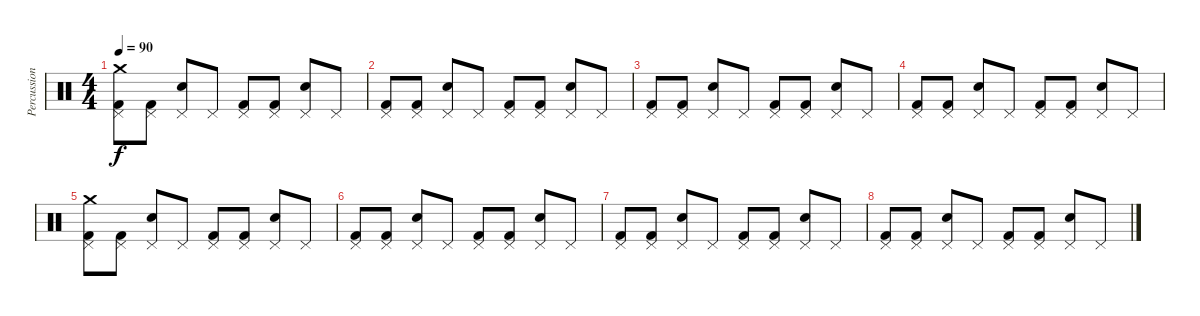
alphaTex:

\track ("Percussion" "Percussion") {instrument percussion}
\staff {score}
\articulation defaults
\ts (4 4)
\tempo 90
\clef neutral
\ks c
("Pedal Hi-Hat (hit)" "Kick (hit) 2" "Crash medium (hit)").8{dy f} ("Pedal Hi-Hat (hit)" "Kick (hit) 2").8 ("Pedal Hi-Hat (hit)" "Electric Snare (hit)").8 "Pedal Hi-Hat (hit)".8 ("Pedal Hi-Hat (hit)" "Kick (hit) 2").8 ("Pedal Hi-Hat (hit)" "Kick (hit) 2").8 ("Pedal Hi-Hat (hit)" "Electric Snare (hit)").8 "Pedal Hi-Hat (hit)".8 |
("Pedal Hi-Hat (hit)" "Kick (hit) 2").8 ("Pedal Hi-Hat (hit)" "Kick (hit) 2").8 ("Pedal Hi-Hat (hit)" "Electric Snare (hit)").8 "Pedal Hi-Hat (hit)".8 ("Pedal Hi-Hat (hit)" "Kick (hit) 2").8 ("Pedal Hi-Hat (hit)" "Kick (hit) 2").8 ("Pedal Hi-Hat (hit)" "Electric Snare (hit)").8 "Pedal Hi-Hat (hit)".8 |
("Pedal Hi-Hat (hit)" "Kick (hit) 2").8 ("Pedal Hi-Hat (hit)" "Kick (hit) 2").8 ("Pedal Hi-Hat (hit)" "Electric Snare (hit)").8 "Pedal Hi-Hat (hit)".8 ("Pedal Hi-Hat (hit)" "Kick (hit) 2").8 ("Pedal Hi-Hat (hit)" "Kick (hit) 2").8 ("Pedal Hi-Hat (hit)" "Electric Snare (hit)").8 "Pedal Hi-Hat (hit)".8 |
("Pedal Hi-Hat (hit)" "Kick (hit) 2").8 ("Pedal Hi-Hat (hit)" "Kick (hit) 2").8 ("Pedal Hi-Hat (hit)" "Electric Snare (hit)").8 "Pedal Hi-Hat (hit)".8 ("Pedal Hi-Hat (hit)" "Kick (hit) 2").8 ("Pedal Hi-Hat (hit)" "Kick (hit) 2").8 ("Pedal Hi-Hat (hit)" "Electric Snare (hit)").8 "Pedal Hi-Hat (hit)".8 |
("Pedal Hi-Hat (hit)" "Kick (hit) 2" "Crash medium (hit)").8 ("Pedal Hi-Hat (hit)" "Kick (hit) 2").8 ("Pedal Hi-Hat (hit)" "Electric Snare (hit)").8 "Pedal Hi-Hat (hit)".8 ("Pedal Hi-Hat (hit)" "Kick (hit) 2").8 ("Pedal Hi-Hat (hit)" "Kick (hit) 2").8 ("Pedal Hi-Hat (hit)" "Electric Snare (hit)").8 "Pedal Hi-Hat (hit)".8 |
("Pedal Hi-Hat (hit)" "Kick (hit) 2").8 ("Pedal Hi-Hat (hit)" "Kick (hit) 2").8 ("Pedal Hi-Hat (hit)" "Electric Snare (hit)").8 "Pedal Hi-Hat (hit)".8 ("Pedal Hi-Hat (hit)" "Kick (hit) 2").8 ("Pedal Hi-Hat (hit)" "Kick (hit) 2").8 ("Pedal Hi-Hat (hit)" "Electric Snare (hit)").8 "Pedal Hi-Hat (hit)".8 |
("Pedal Hi-Hat (hit)" "Kick (hit) 2").8 ("Pedal Hi-Hat (hit)" "Kick (hit) 2").8 ("Pedal Hi-Hat (hit)" "Electric Snare (hit)").8 "Pedal Hi-Hat (hit)".8 ("Pedal Hi-Hat (hit)" "Kick (hit) 2").8 ("Pedal Hi-Hat (hit)" "Kick (hit) 2").8 ("Pedal Hi-Hat (hit)" "Electric Snare (hit)").8 "Pedal Hi-Hat (hit)".8 |
("Pedal Hi-Hat (hit)" "Kick (hit) 2").8 ("Pedal Hi-Hat (hit)" "Kick (hit) 2").8 ("Pedal Hi-Hat (hit)" "Electric Snare (hit)").8 "Pedal Hi-Hat (hit)".8 ("Pedal Hi-Hat (hit)" "Kick (hit) 2").8 ("Pedal Hi-Hat (hit)" "Kick (hit) 2").8 ("Pedal Hi-Hat (hit)" "Electric Snare (hit)").8 "Pedal Hi-Hat (hit)".8
